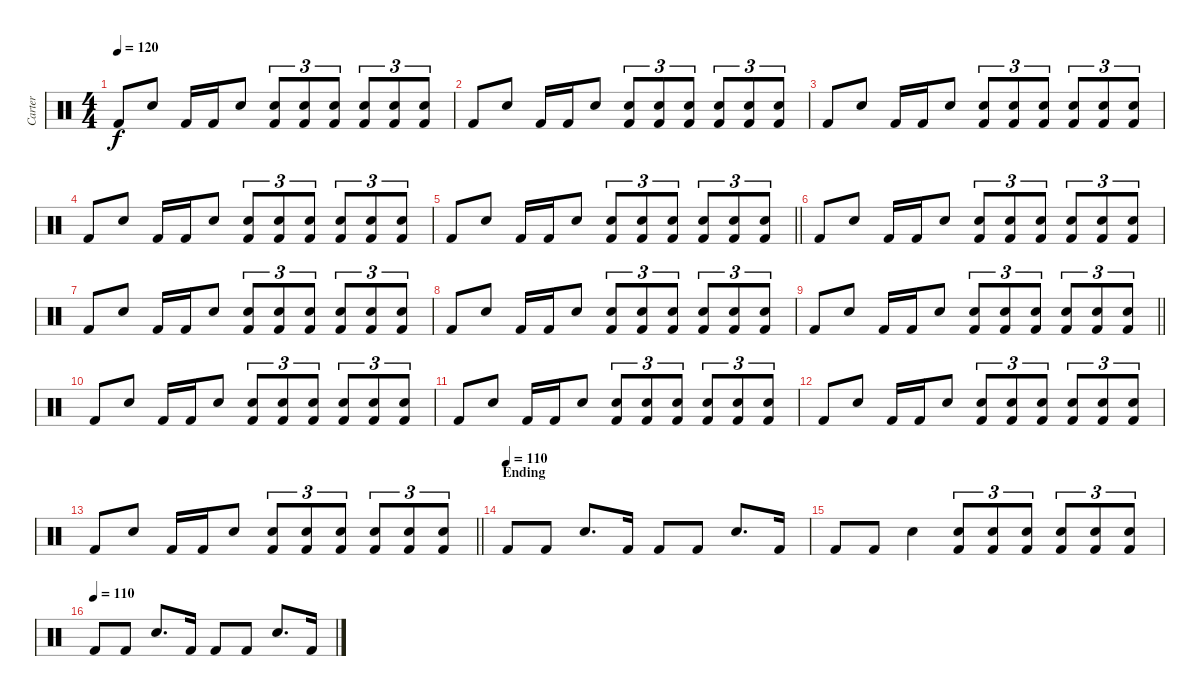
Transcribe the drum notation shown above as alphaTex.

\track ("Carter" "Carter") {instrument percussion}
\staff {score}
\articulation defaults
\ts (4 4)
\tempo 120
\clef neutral
\ks c "Kick (hit) 2".8{dy f} "Electric Snare (hit)".8 "Kick (hit) 2".16 "Kick (hit) 2".16 "Snare (hit) 2".8
("Electric Snare (hit)" "Kick (hit) 2").8{tu (3 2)} ("Electric Snare (hit)" "Kick (hit) 2").8{tu (3 2)} ("Electric Snare (hit)" "Kick (hit) 2").8{tu (3 2)} ("Electric Snare (hit)" "Kick (hit) 2").8{tu (3 2)} ("Electric Snare (hit)" "Kick (hit) 2").8{tu (3 2)} ("Electric Snare (hit)" "Kick (hit) 2").8{tu (3 2)} |
"Kick (hit) 2".8 "Electric Snare (hit)".8 "Kick (hit) 2".16 "Kick (hit) 2".16 "Snare (hit) 2".8 ("Electric Snare (hit)" "Kick (hit) 2").8{tu (3 2)} ("Electric Snare (hit)" "Kick (hit) 2").8{tu (3 2)} ("Electric Snare (hit)" "Kick (hit) 2").8{tu (3 2)} ("Electric Snare (hit)" "Kick (hit) 2").8{tu (3 2)} ("Electric Snare (hit)" "Kick (hit) 2").8{tu (3 2)} ("Electric Snare (hit)" "Kick (hit) 2").8{tu (3 2)} |
"Kick (hit) 2".8 "Electric Snare (hit)".8 "Kick (hit) 2".16 "Kick (hit) 2".16 "Snare (hit) 2".8 ("Electric Snare (hit)" "Kick (hit) 2").8{tu (3 2)} ("Electric Snare (hit)" "Kick (hit) 2").8{tu (3 2)} ("Electric Snare (hit)" "Kick (hit) 2").8{tu (3 2)} ("Electric Snare (hit)" "Kick (hit) 2").8{tu (3 2)} ("Electric Snare (hit)" "Kick (hit) 2").8{tu (3 2)} ("Electric Snare (hit)" "Kick (hit) 2").8{tu (3 2)} |
"Kick (hit) 2".8 "Electric Snare (hit)".8 "Kick (hit) 2".16 "Kick (hit) 2".16 "Snare (hit) 2".8 ("Electric Snare (hit)" "Kick (hit) 2").8{tu (3 2)} ("Electric Snare (hit)" "Kick (hit) 2").8{tu (3 2)} ("Electric Snare (hit)" "Kick (hit) 2").8{tu (3 2)} ("Electric Snare (hit)" "Kick (hit) 2").8{tu (3 2)} ("Electric Snare (hit)" "Kick (hit) 2").8{tu (3 2)} ("Electric Snare (hit)" "Kick (hit) 2").8{tu (3 2)} |
\barLineRight lightlight "Kick (hit) 2".8 "Electric Snare (hit)".8 "Kick (hit) 2".16 "Kick (hit) 2".16 "Snare (hit) 2".8
("Electric Snare (hit)" "Kick (hit) 2").8{tu (3 2)} ("Electric Snare (hit)" "Kick (hit) 2").8{tu (3 2)} ("Electric Snare (hit)" "Kick (hit) 2").8{tu (3 2)} ("Electric Snare (hit)" "Kick (hit) 2").8{tu (3 2)} ("Electric Snare (hit)" "Kick (hit) 2").8{tu (3 2)} ("Electric Snare (hit)" "Kick (hit) 2").8{tu (3 2)} |
"Kick (hit) 2".8 "Electric Snare (hit)".8 "Kick (hit) 2".16 "Kick (hit) 2".16 "Snare (hit) 2".8 ("Electric Snare (hit)" "Kick (hit) 2").8{tu (3 2)} ("Electric Snare (hit)" "Kick (hit) 2").8{tu (3 2)} ("Electric Snare (hit)" "Kick (hit) 2").8{tu (3 2)} ("Electric Snare (hit)" "Kick (hit) 2").8{tu (3 2)} ("Electric Snare (hit)" "Kick (hit) 2").8{tu (3 2)} ("Electric Snare (hit)" "Kick (hit) 2").8{tu (3 2)} |
"Kick (hit) 2".8 "Electric Snare (hit)".8 "Kick (hit) 2".16 "Kick (hit) 2".16 "Snare (hit) 2".8 ("Electric Snare (hit)" "Kick (hit) 2").8{tu (3 2)} ("Electric Snare (hit)" "Kick (hit) 2").8{tu (3 2)} ("Electric Snare (hit)" "Kick (hit) 2").8{tu (3 2)} ("Electric Snare (hit)" "Kick (hit) 2").8{tu (3 2)} ("Electric Snare (hit)" "Kick (hit) 2").8{tu (3 2)} ("Electric Snare (hit)" "Kick (hit) 2").8{tu (3 2)} |
"Kick (hit) 2".8 "Electric Snare (hit)".8 "Kick (hit) 2".16 "Kick (hit) 2".16 "Snare (hit) 2".8 ("Electric Snare (hit)" "Kick (hit) 2").8{tu (3 2)} ("Electric Snare (hit)" "Kick (hit) 2").8{tu (3 2)} ("Electric Snare (hit)" "Kick (hit) 2").8{tu (3 2)} ("Electric Snare (hit)" "Kick (hit) 2").8{tu (3 2)} ("Electric Snare (hit)" "Kick (hit) 2").8{tu (3 2)} ("Electric Snare (hit)" "Kick (hit) 2").8{tu (3 2)} |
\barLineRight lightlight "Kick (hit) 2".8 "Electric Snare (hit)".8 "Kick (hit) 2".16 "Kick (hit) 2".16 "Snare (hit) 2".8
("Electric Snare (hit)" "Kick (hit) 2").8{tu (3 2)} ("Electric Snare (hit)" "Kick (hit) 2").8{tu (3 2)} ("Electric Snare (hit)" "Kick (hit) 2").8{tu (3 2)} ("Electric Snare (hit)" "Kick (hit) 2").8{tu (3 2)} ("Electric Snare (hit)" "Kick (hit) 2").8{tu (3 2)} ("Electric Snare (hit)" "Kick (hit) 2").8{tu (3 2)} |
"Kick (hit) 2".8 "Electric Snare (hit)".8 "Kick (hit) 2".16 "Kick (hit) 2".16 "Snare (hit) 2".8 ("Electric Snare (hit)" "Kick (hit) 2").8{tu (3 2)} ("Electric Snare (hit)" "Kick (hit) 2").8{tu (3 2)} ("Electric Snare (hit)" "Kick (hit) 2").8{tu (3 2)} ("Electric Snare (hit)" "Kick (hit) 2").8{tu (3 2)} ("Electric Snare (hit)" "Kick (hit) 2").8{tu (3 2)} ("Electric Snare (hit)" "Kick (hit) 2").8{tu (3 2)} |
"Kick (hit) 2".8 "Electric Snare (hit)".8 "Kick (hit) 2".16 "Kick (hit) 2".16 "Snare (hit) 2".8 ("Electric Snare (hit)" "Kick (hit) 2").8{tu (3 2)} ("Electric Snare (hit)" "Kick (hit) 2").8{tu (3 2)} ("Electric Snare (hit)" "Kick (hit) 2").8{tu (3 2)} ("Electric Snare (hit)" "Kick (hit) 2").8{tu (3 2)} ("Electric Snare (hit)" "Kick (hit) 2").8{tu (3 2)} ("Electric Snare (hit)" "Kick (hit) 2").8{tu (3 2)} |
"Kick (hit) 2".8 "Electric Snare (hit)".8 "Kick (hit) 2".16 "Kick (hit) 2".16 "Snare (hit) 2".8 ("Electric Snare (hit)" "Kick (hit) 2").8{tu (3 2)} ("Electric Snare (hit)" "Kick (hit) 2").8{tu (3 2)} ("Electric Snare (hit)" "Kick (hit) 2").8{tu (3 2)} ("Electric Snare (hit)" "Kick (hit) 2").8{tu (3 2)} ("Electric Snare (hit)" "Kick (hit) 2").8{tu (3 2)} ("Electric Snare (hit)" "Kick (hit) 2").8{tu (3 2)} |
\barLineRight lightlight "Kick (hit) 2".8 "Electric Snare (hit)".8 "Kick (hit) 2".16 "Kick (hit) 2".16 "Snare (hit) 2".8
("Electric Snare (hit)" "Kick (hit) 2").8{tu (3 2)} ("Electric Snare (hit)" "Kick (hit) 2").8{tu (3 2)} ("Electric Snare (hit)" "Kick (hit) 2").8{tu (3 2)} ("Electric Snare (hit)" "Kick (hit) 2").8{tu (3 2)} ("Electric Snare (hit)" "Kick (hit) 2").8{tu (3 2)} ("Electric Snare (hit)" "Kick (hit) 2").8{tu (3 2)} |
\section ("" "Ending")
\tempo (110)
"Kick (hit) 2".8 "Kick (hit) 2".8 "Electric Snare (hit)".8{d} "Kick (hit) 2".16 "Kick (hit) 2".8 "Kick (hit) 2".8 "Electric Snare (hit)".8{d} "Kick (hit) 2".16 |
"Kick (hit) 2".8 "Kick (hit) 2".8 "Electric Snare (hit)".4 ("Electric Snare (hit)" "Kick (hit) 2").8{tu (3 2)} ("Electric Snare (hit)" "Kick (hit) 2").8{tu (3 2)} ("Electric Snare (hit)" "Kick (hit) 2").8{tu (3 2)} ("Electric Snare (hit)" "Kick (hit) 2").8{tu (3 2)} ("Electric Snare (hit)" "Kick (hit) 2").8{tu (3 2)} ("Electric Snare (hit)" "Kick (hit) 2").8{tu (3 2)} |
\tempo (110)
"Kick (hit) 2".8 "Kick (hit) 2".8 "Electric Snare (hit)".8{d} "Kick (hit) 2".16 "Kick (hit) 2".8 "Kick (hit) 2".8 "Electric Snare (hit)".8{d} "Kick (hit) 2".16
